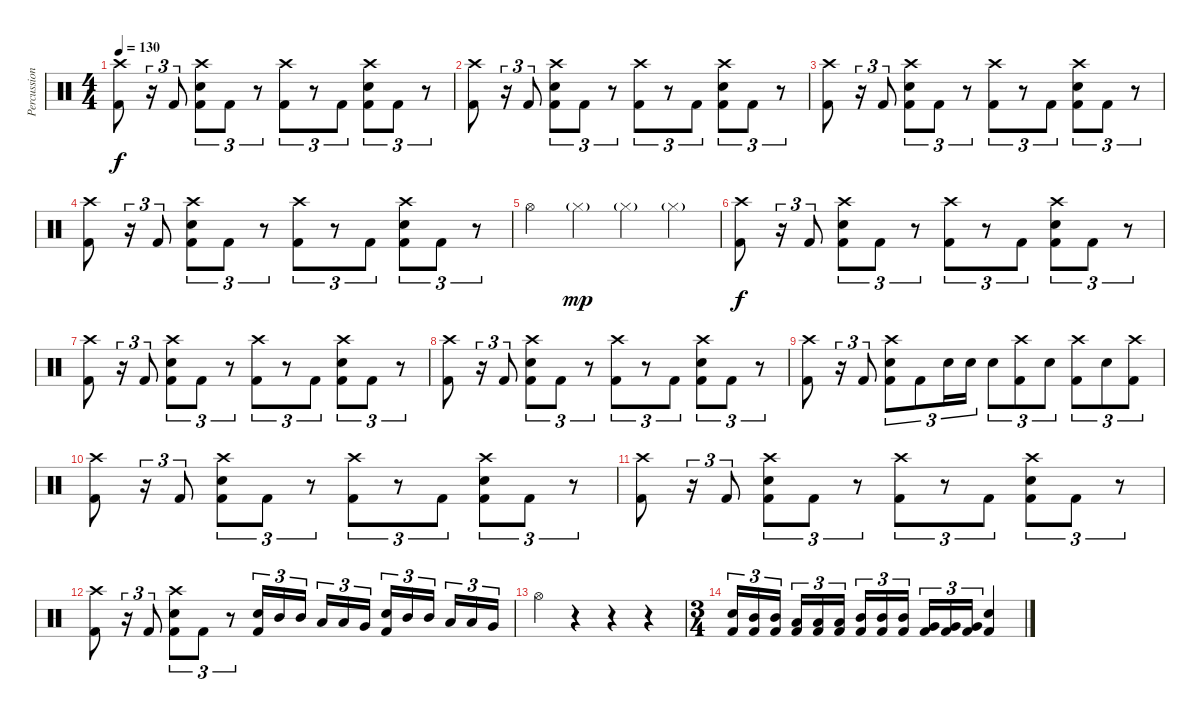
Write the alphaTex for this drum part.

\track ("Percussion" "Percussion") {instrument percussion}
\staff {score}
\articulation defaults
\ts (4 4)
\tempo 130
\clef neutral
\ks c
("Crash high (hit)" "Kick (hit) 2").8{dy f} r.16{tu (3 2)} "Kick (hit) 2".8{tu (3 2)} ("Crash high (hit)" "Electric Snare (hit)" "Kick (hit) 2").8{tu (3 2)} "Kick (hit) 2".8{tu (3 2)} r.8{tu (3 2)} ("Crash high (hit)" "Kick (hit) 2").8{tu (3 2)} r.8{tu (3 2)} "Kick (hit) 2".8{tu (3 2)} ("Crash high (hit)" "Electric Snare (hit)" "Kick (hit) 2").8{tu (3 2)} "Kick (hit) 2".8{tu (3 2)} r.8{tu (3 2)} |
("Crash high (hit)" "Kick (hit) 2").8 r.16{tu (3 2)} "Kick (hit) 2".8{tu (3 2)} ("Crash high (hit)" "Electric Snare (hit)" "Kick (hit) 2").8{tu (3 2)} "Kick (hit) 2".8{tu (3 2)} r.8{tu (3 2)} ("Crash high (hit)" "Kick (hit) 2").8{tu (3 2)} r.8{tu (3 2)} "Kick (hit) 2".8{tu (3 2)} ("Crash high (hit)" "Electric Snare (hit)" "Kick (hit) 2").8{tu (3 2)} "Kick (hit) 2".8{tu (3 2)} r.8{tu (3 2)} |
("Crash high (hit)" "Kick (hit) 2").8 r.16{tu (3 2)} "Kick (hit) 2".8{tu (3 2)} ("Crash high (hit)" "Electric Snare (hit)" "Kick (hit) 2").8{tu (3 2)} "Kick (hit) 2".8{tu (3 2)} r.8{tu (3 2)} ("Crash high (hit)" "Kick (hit) 2").8{tu (3 2)} r.8{tu (3 2)} "Kick (hit) 2".8{tu (3 2)} ("Crash high (hit)" "Electric Snare (hit)" "Kick (hit) 2").8{tu (3 2)} "Kick (hit) 2".8{tu (3 2)} r.8{tu (3 2)} |
("Crash high (hit)" "Kick (hit) 2").8 r.16{tu (3 2)} "Kick (hit) 2".8{tu (3 2)} ("Crash high (hit)" "Electric Snare (hit)" "Kick (hit) 2").8{tu (3 2)} "Kick (hit) 2".8{tu (3 2)} r.8{tu (3 2)} ("Crash high (hit)" "Kick (hit) 2").8{tu (3 2)} r.8{tu (3 2)} "Kick (hit) 2".8{tu (3 2)} ("Crash high (hit)" "Electric Snare (hit)" "Kick (hit) 2").8{tu (3 2)} "Kick (hit) 2".8{tu (3 2)} r.8{tu (3 2)} |
"Hi-Hat (open)".4 "Hi-Hat (closed)"{g}.4{dy mp} "Hi-Hat (closed)"{g}.4 "Hi-Hat (closed)"{g}.4 |
("Crash high (hit)" "Kick (hit) 2").8{dy f} r.16{tu (3 2)} "Kick (hit) 2".8{tu (3 2)} ("Crash high (hit)" "Electric Snare (hit)" "Kick (hit) 2").8{tu (3 2)} "Kick (hit) 2".8{tu (3 2)} r.8{tu (3 2)} ("Crash high (hit)" "Kick (hit) 2").8{tu (3 2)} r.8{tu (3 2)} "Kick (hit) 2".8{tu (3 2)} ("Crash high (hit)" "Electric Snare (hit)" "Kick (hit) 2").8{tu (3 2)} "Kick (hit) 2".8{tu (3 2)} r.8{tu (3 2)} |
("Crash high (hit)" "Kick (hit) 2").8 r.16{tu (3 2)} "Kick (hit) 2".8{tu (3 2)} ("Crash high (hit)" "Electric Snare (hit)" "Kick (hit) 2").8{tu (3 2)} "Kick (hit) 2".8{tu (3 2)} r.8{tu (3 2)} ("Crash high (hit)" "Kick (hit) 2").8{tu (3 2)} r.8{tu (3 2)} "Kick (hit) 2".8{tu (3 2)} ("Crash high (hit)" "Electric Snare (hit)" "Kick (hit) 2").8{tu (3 2)} "Kick (hit) 2".8{tu (3 2)} r.8{tu (3 2)} |
("Crash high (hit)" "Kick (hit) 2").8 r.16{tu (3 2)} "Kick (hit) 2".8{tu (3 2)} ("Crash high (hit)" "Electric Snare (hit)" "Kick (hit) 2").8{tu (3 2)} "Kick (hit) 2".8{tu (3 2)} r.8{tu (3 2)} ("Crash high (hit)" "Kick (hit) 2").8{tu (3 2)} r.8{tu (3 2)} "Kick (hit) 2".8{tu (3 2)} ("Crash high (hit)" "Electric Snare (hit)" "Kick (hit) 2").8{tu (3 2)} "Kick (hit) 2".8{tu (3 2)} r.8{tu (3 2)} |
("Crash high (hit)" "Kick (hit) 2").8 r.16{tu (3 2)} "Kick (hit) 2".8{tu (3 2)} ("Crash high (hit)" "Electric Snare (hit)" "Kick (hit) 2").8{tu (3 2)} "Kick (hit) 2".8{tu (3 2)} "Electric Snare (hit)".16{tu (3 2)} "Electric Snare (hit)".16{tu (3 2)} "Electric Snare (hit)".8{tu (3 2)} ("Crash high (hit)" "Kick (hit) 2").8{tu (3 2)} "Electric Snare (hit)".8{tu (3 2)} ("Crash high (hit)" "Kick (hit) 2").8{tu (3 2)} "Electric Snare (hit)".8{tu (3 2)} ("Crash high (hit)" "Kick (hit) 2").8{tu (3 2)} |
("Crash high (hit)" "Kick (hit) 2").8 r.16{tu (3 2)} "Kick (hit) 2".8{tu (3 2)} ("Crash high (hit)" "Electric Snare (hit)" "Kick (hit) 2").8{tu (3 2)} "Kick (hit) 2".8{tu (3 2)} r.8{tu (3 2)} ("Crash high (hit)" "Kick (hit) 2").8{tu (3 2)} r.8{tu (3 2)} "Kick (hit) 2".8{tu (3 2)} ("Crash high (hit)" "Electric Snare (hit)" "Kick (hit) 2").8{tu (3 2)} "Kick (hit) 2".8{tu (3 2)} r.8{tu (3 2)} |
("Crash high (hit)" "Kick (hit) 2").8 r.16{tu (3 2)} "Kick (hit) 2".8{tu (3 2)} ("Crash high (hit)" "Electric Snare (hit)" "Kick (hit) 2").8{tu (3 2)} "Kick (hit) 2".8{tu (3 2)} r.8{tu (3 2)} ("Crash high (hit)" "Kick (hit) 2").8{tu (3 2)} r.8{tu (3 2)} "Kick (hit) 2".8{tu (3 2)} ("Crash high (hit)" "Electric Snare (hit)" "Kick (hit) 2").8{tu (3 2)} "Kick (hit) 2".8{tu (3 2)} r.8{tu (3 2)} |
("Crash high (hit)" "Kick (hit) 2").8 r.16{tu (3 2)} "Kick (hit) 2".8{tu (3 2)} ("Crash high (hit)" "Electric Snare (hit)" "Kick (hit) 2").8{tu (3 2)} "Kick (hit) 2".8{tu (3 2)} r.8{tu (3 2)} ("Electric Snare (hit)" "Kick (hit) 2").16{tu (3 2)} "Mid Tom (hit)".16{tu (3 2)} "Mid Tom (hit)".16{tu (3 2) beam splitsecondary} "Low Tom (hit)".16{tu (3 2)} "Low Tom (hit)".16{tu (3 2)} "Very Low Tom (hit)".16{tu (3 2)} ("Electric Snare (hit)" "Kick (hit) 2").16{tu (3 2)} "Mid Tom (hit)".16{tu (3 2)} "Mid Tom (hit)".16{tu (3 2) beam splitsecondary} "Low Tom (hit)".16{tu (3 2)} "Low Tom (hit)".16{tu (3 2)} "Very Low Tom (hit)".16{tu (3 2)} |
"Hi-Hat (open)".4 r.4 r.4 r.4 |
\ts (3 4)
("Electric Snare (hit)" "Kick (hit) 2").16{tu (3 2)} ("Mid Tom (hit)" "Kick (hit) 2").16{tu (3 2)} ("Mid Tom (hit)" "Kick (hit) 2").16{tu (3 2) beam splitsecondary} ("Low Tom (hit)" "Kick (hit) 2").16{tu (3 2)} ("Low Tom (hit)" "Kick (hit) 2").16{tu (3 2)} ("Low Tom (hit)" "Kick (hit) 2").16{tu (3 2)} ("Mid Tom (hit)" "Kick (hit) 2").16{tu (3 2)} ("Mid Tom (hit)" "Kick (hit) 2").16{tu (3 2)} ("Mid Tom (hit)" "Kick (hit) 2").16{tu (3 2) beam splitsecondary} ("Very Low Tom (hit)" "Kick (hit) 2").16{tu (3 2)} ("Very Low Tom (hit)" "Kick (hit) 2").16{tu (3 2)} ("Very Low Tom (hit)" "Kick (hit) 2").16{tu (3 2)} ("Electric Snare (hit)" "Kick (hit) 2").4
